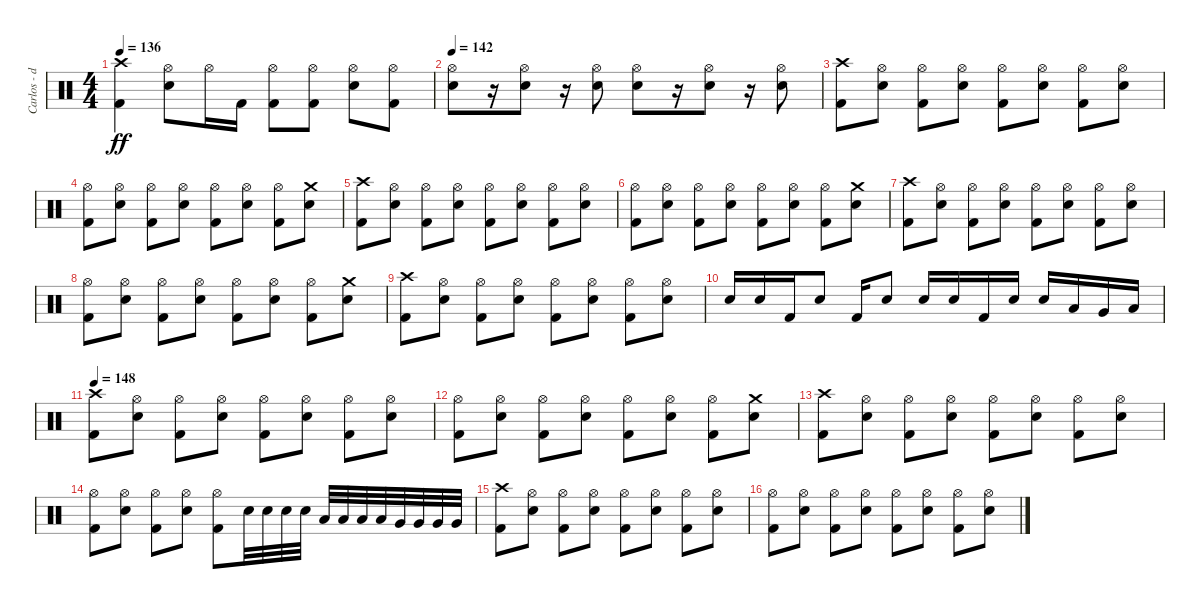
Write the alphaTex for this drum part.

\track ("Carlos - drums" "Carlos - d") {instrument percussion}
\staff {score}
\articulation defaults
\ts (4 4)
\tempo 136
\clef neutral
\ks c
("Kick (hit) 2" "Crash high (hit)").4{dy ff} ("Electric Snare (hit)" "Hi-Hat (open)").8 "Hi-Hat (open)".16 "Kick (hit) 2".16 ("Hi-Hat (open)" "Kick (hit) 2").8 ("Hi-Hat (open)" "Kick (hit) 2").8 ("Hi-Hat (open)" "Electric Snare (hit)").8 ("Kick (hit) 2" "Hi-Hat (open)").8 |
\tempo 142
("Hi-Hat (open)" "Electric Snare (hit)").8 r.16 ("Hi-Hat (open)" "Electric Snare (hit)").8 r.16 ("Hi-Hat (open)" "Electric Snare (hit)").8 ("Hi-Hat (open)" "Electric Snare (hit)").8 r.16 ("Hi-Hat (open)" "Electric Snare (hit)").8 r.16 ("Hi-Hat (open)" "Electric Snare (hit)").8 |
("Kick (hit) 2" "Crash high (hit)").8 ("Electric Snare (hit)" "Hi-Hat (open)").8 ("Kick (hit) 2" "Hi-Hat (open)").8 ("Electric Snare (hit)" "Hi-Hat (open)").8 ("Kick (hit) 2" "Hi-Hat (open)").8 ("Electric Snare (hit)" "Hi-Hat (open)").8 ("Kick (hit) 2" "Hi-Hat (open)").8 ("Electric Snare (hit)" "Hi-Hat (open)").8 |
("Kick (hit) 2" "Hi-Hat (open)").8 ("Electric Snare (hit)" "Hi-Hat (open)").8 ("Kick (hit) 2" "Hi-Hat (open)").8 ("Electric Snare (hit)" "Hi-Hat (open)").8 ("Kick (hit) 2" "Hi-Hat (open)").8 ("Electric Snare (hit)" "Hi-Hat (open)").8 ("Kick (hit) 2" "Hi-Hat (open)").8 ("Electric Snare (hit)" "Crash medium (hit)").8 |
("Kick (hit) 2" "Crash high (hit)").8 ("Electric Snare (hit)" "Hi-Hat (open)").8 ("Kick (hit) 2" "Hi-Hat (open)").8 ("Electric Snare (hit)" "Hi-Hat (open)").8 ("Kick (hit) 2" "Hi-Hat (open)").8 ("Electric Snare (hit)" "Hi-Hat (open)").8 ("Kick (hit) 2" "Hi-Hat (open)").8 ("Electric Snare (hit)" "Hi-Hat (open)").8 |
("Kick (hit) 2" "Hi-Hat (open)").8 ("Electric Snare (hit)" "Hi-Hat (open)").8 ("Kick (hit) 2" "Hi-Hat (open)").8 ("Electric Snare (hit)" "Hi-Hat (open)").8 ("Kick (hit) 2" "Hi-Hat (open)").8 ("Electric Snare (hit)" "Hi-Hat (open)").8 ("Kick (hit) 2" "Hi-Hat (open)").8 ("Electric Snare (hit)" "Crash medium (hit)").8 |
("Kick (hit) 2" "Crash high (hit)").8 ("Electric Snare (hit)" "Hi-Hat (open)").8 ("Kick (hit) 2" "Hi-Hat (open)").8 ("Electric Snare (hit)" "Hi-Hat (open)").8 ("Kick (hit) 2" "Hi-Hat (open)").8 ("Electric Snare (hit)" "Hi-Hat (open)").8 ("Kick (hit) 2" "Hi-Hat (open)").8 ("Electric Snare (hit)" "Hi-Hat (open)").8 |
("Kick (hit) 2" "Hi-Hat (open)").8 ("Electric Snare (hit)" "Hi-Hat (open)").8 ("Kick (hit) 2" "Hi-Hat (open)").8 ("Electric Snare (hit)" "Hi-Hat (open)").8 ("Kick (hit) 2" "Hi-Hat (open)").8 ("Electric Snare (hit)" "Hi-Hat (open)").8 ("Kick (hit) 2" "Hi-Hat (open)").8 ("Electric Snare (hit)" "Crash medium (hit)").8 |
("Kick (hit) 2" "Crash high (hit)").8 ("Electric Snare (hit)" "Hi-Hat (open)").8 ("Kick (hit) 2" "Hi-Hat (open)").8 ("Electric Snare (hit)" "Hi-Hat (open)").8 ("Kick (hit) 2" "Hi-Hat (open)").8 ("Electric Snare (hit)" "Hi-Hat (open)").8 ("Kick (hit) 2" "Hi-Hat (open)").8 ("Electric Snare (hit)" "Hi-Hat (open)").8 |
"Electric Snare (hit)".16 "Electric Snare (hit)".16 "Kick (hit) 2".16 "Electric Snare (hit)".8 "Kick (hit) 2".16 "Electric Snare (hit)".8 "Electric Snare (hit)".16 "Electric Snare (hit)".16 "Kick (hit) 2".16 "Electric Snare (hit)".16 "Electric Snare (hit)".16 "Low Tom (hit)".16 "Very Low Tom (hit)".16 "Low Floor Tom (hit)".16 |
\tempo 148
("Kick (hit) 2" "Crash high (hit)").8 ("Electric Snare (hit)" "Hi-Hat (open)").8 ("Kick (hit) 2" "Hi-Hat (open)").8 ("Electric Snare (hit)" "Hi-Hat (open)").8 ("Kick (hit) 2" "Hi-Hat (open)").8 ("Electric Snare (hit)" "Hi-Hat (open)").8 ("Kick (hit) 2" "Hi-Hat (open)").8 ("Electric Snare (hit)" "Hi-Hat (open)").8 |
("Kick (hit) 2" "Hi-Hat (open)").8 ("Electric Snare (hit)" "Hi-Hat (open)").8 ("Kick (hit) 2" "Hi-Hat (open)").8 ("Electric Snare (hit)" "Hi-Hat (open)").8 ("Kick (hit) 2" "Hi-Hat (open)").8 ("Electric Snare (hit)" "Hi-Hat (open)").8 ("Kick (hit) 2" "Hi-Hat (open)").8 ("Electric Snare (hit)" "Crash medium (hit)").8 |
("Kick (hit) 2" "Crash high (hit)").8 ("Electric Snare (hit)" "Hi-Hat (open)").8 ("Kick (hit) 2" "Hi-Hat (open)").8 ("Electric Snare (hit)" "Hi-Hat (open)").8 ("Kick (hit) 2" "Hi-Hat (open)").8 ("Electric Snare (hit)" "Hi-Hat (open)").8 ("Kick (hit) 2" "Hi-Hat (open)").8 ("Electric Snare (hit)" "Hi-Hat (open)").8 |
("Kick (hit) 2" "Hi-Hat (open)").8 ("Electric Snare (hit)" "Hi-Hat (open)").8 ("Kick (hit) 2" "Hi-Hat (open)").8 ("Electric Snare (hit)" "Hi-Hat (open)").8 ("Kick (hit) 2" "Hi-Hat (open)").8 "Electric Snare (hit)".32 "Electric Snare (hit)".32 "Electric Snare (hit)".32 "Electric Snare (hit)".32 "Low Tom (hit)".32 "Low Tom (hit)".32 "Low Tom (hit)".32 "Low Tom (hit)".32 "Very Low Tom (hit)".32 "Very Low Tom (hit)".32 "Very Low Tom (hit)".32 "Very Low Tom (hit)".32 |
("Kick (hit) 2" "Crash high (hit)").8 ("Electric Snare (hit)" "Hi-Hat (open)").8 ("Kick (hit) 2" "Hi-Hat (open)").8 ("Electric Snare (hit)" "Hi-Hat (open)").8 ("Kick (hit) 2" "Hi-Hat (open)").8 ("Electric Snare (hit)" "Hi-Hat (open)").8 ("Kick (hit) 2" "Hi-Hat (open)").8 ("Electric Snare (hit)" "Hi-Hat (open)").8 |
("Kick (hit) 2" "Hi-Hat (open)").8 ("Electric Snare (hit)" "Hi-Hat (open)").8 ("Kick (hit) 2" "Hi-Hat (open)").8 ("Electric Snare (hit)" "Hi-Hat (open)").8 ("Kick (hit) 2" "Hi-Hat (open)").8 ("Electric Snare (hit)" "Hi-Hat (open)").8 ("Kick (hit) 2" "Hi-Hat (open)").8 ("Electric Snare (hit)" "Hi-Hat (open)").8
